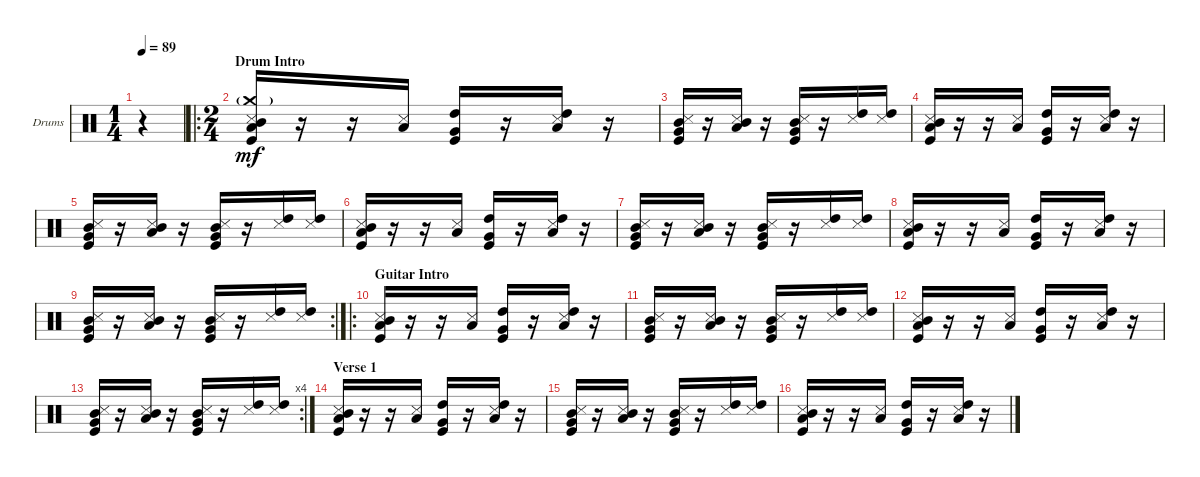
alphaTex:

\bracketExtendMode groupsimilarinstruments
\firstSystemTrackNameOrientation horizontal
\otherSystemsTrackNameOrientation horizontal
\track ("Ryo" "Drums") {instrument percussion}
\staff {score}
\articulation defaults
\ts (1 4)
\tempo 89
\clef neutral
\ks c
r.4{dy mf} |
\ro
\ts (2 4)
\section ("" "Drum Intro")
("Kick (hit)" "Low Tom (hit)" "Crash medium (hit)"{g} "Snare (side stick) 3" "Mid Tom (hit)").16 r.16 r.16 ("Low Tom (hit)" "Snare (side stick) 3").16 ("Kick (hit)" "Very Low Tom (hit)" "High Tom (hit)").16 r.16 ("Low Tom (hit)" "High Tom (hit)" "Snare (side stick) 3").16 r.16 |
("Kick (hit)" "Very Low Tom (hit)" "Snare (side stick) 3" "Mid Tom (hit)").16 r.16 ("Mid Tom (hit)" "Low Tom (hit)" "Snare (side stick) 3").16 r.16 ("Kick (hit)" "Very Low Tom (hit)" "Snare (side stick) 3" "Mid Tom (hit)").16 r.16 ("High Tom (hit)" "Snare (side stick) 3").16 ("High Tom (hit)" "Snare (side stick) 3").16 |
("Kick (hit)" "Low Tom (hit)" "Snare (side stick) 3" "Mid Tom (hit)").16 r.16 r.16 ("Low Tom (hit)" "Snare (side stick) 3").16 ("Kick (hit)" "Very Low Tom (hit)" "High Tom (hit)").16 r.16 ("Low Tom (hit)" "High Tom (hit)" "Snare (side stick) 3").16 r.16 |
("Kick (hit)" "Very Low Tom (hit)" "Snare (side stick) 3" "Mid Tom (hit)").16 r.16 ("Mid Tom (hit)" "Low Tom (hit)" "Snare (side stick) 3").16 r.16 ("Kick (hit)" "Very Low Tom (hit)" "Snare (side stick) 3" "Mid Tom (hit)").16 r.16 ("High Tom (hit)" "Snare (side stick) 3").16 ("High Tom (hit)" "Snare (side stick) 3").16 |
("Kick (hit)" "Low Tom (hit)" "Snare (side stick) 3" "Mid Tom (hit)").16 r.16 r.16 ("Low Tom (hit)" "Snare (side stick) 3").16 ("Kick (hit)" "Very Low Tom (hit)" "High Tom (hit)").16 r.16 ("Low Tom (hit)" "High Tom (hit)" "Snare (side stick) 3").16 r.16 |
("Kick (hit)" "Very Low Tom (hit)" "Snare (side stick) 3" "Mid Tom (hit)").16 r.16 ("Mid Tom (hit)" "Low Tom (hit)" "Snare (side stick) 3").16 r.16 ("Kick (hit)" "Very Low Tom (hit)" "Snare (side stick) 3" "Mid Tom (hit)").16 r.16 ("High Tom (hit)" "Snare (side stick) 3").16 ("High Tom (hit)" "Snare (side stick) 3").16 |
("Kick (hit)" "Low Tom (hit)" "Snare (side stick) 3" "Mid Tom (hit)").16 r.16 r.16 ("Low Tom (hit)" "Snare (side stick) 3").16 ("Kick (hit)" "Very Low Tom (hit)" "High Tom (hit)").16 r.16 ("Low Tom (hit)" "High Tom (hit)" "Snare (side stick) 3").16 r.16 |
\rc 2
("Kick (hit)" "Very Low Tom (hit)" "Snare (side stick) 3" "Mid Tom (hit)").16 r.16 ("Mid Tom (hit)" "Low Tom (hit)" "Snare (side stick) 3").16 r.16 ("Kick (hit)" "Very Low Tom (hit)" "Snare (side stick) 3" "Mid Tom (hit)").16 r.16 ("High Tom (hit)" "Snare (side stick) 3").16 ("High Tom (hit)" "Snare (side stick) 3").16 |
\ro
\section ("" "Guitar Intro")
("Kick (hit)" "Low Tom (hit)" "Snare (side stick) 3" "Mid Tom (hit)").16 r.16 r.16 ("Low Tom (hit)" "Snare (side stick) 3").16 ("Kick (hit)" "Very Low Tom (hit)" "High Tom (hit)").16 r.16 ("Low Tom (hit)" "High Tom (hit)" "Snare (side stick) 3").16 r.16 |
("Kick (hit)" "Very Low Tom (hit)" "Snare (side stick) 3" "Mid Tom (hit)").16 r.16 ("Mid Tom (hit)" "Low Tom (hit)" "Snare (side stick) 3").16 r.16 ("Kick (hit)" "Very Low Tom (hit)" "Snare (side stick) 3" "Mid Tom (hit)").16 r.16 ("High Tom (hit)" "Snare (side stick) 3").16 ("High Tom (hit)" "Snare (side stick) 3").16 |
("Kick (hit)" "Low Tom (hit)" "Snare (side stick) 3" "Mid Tom (hit)").16 r.16 r.16 ("Low Tom (hit)" "Snare (side stick) 3").16 ("Kick (hit)" "Very Low Tom (hit)" "High Tom (hit)").16 r.16 ("Low Tom (hit)" "High Tom (hit)" "Snare (side stick) 3").16 r.16 |
\rc 4
("Kick (hit)" "Very Low Tom (hit)" "Snare (side stick) 3" "Mid Tom (hit)").16 r.16 ("Mid Tom (hit)" "Low Tom (hit)" "Snare (side stick) 3").16 r.16 ("Kick (hit)" "Very Low Tom (hit)" "Snare (side stick) 3" "Mid Tom (hit)").16 r.16 ("High Tom (hit)" "Snare (side stick) 3").16 ("High Tom (hit)" "Snare (side stick) 3").16 |
\section ("" "Verse 1")
("Kick (hit)" "Low Tom (hit)" "Snare (side stick) 3" "Mid Tom (hit)").16 r.16 r.16 ("Low Tom (hit)" "Snare (side stick) 3").16 ("Kick (hit)" "Very Low Tom (hit)" "High Tom (hit)").16 r.16 ("Low Tom (hit)" "High Tom (hit)" "Snare (side stick) 3").16 r.16 |
("Kick (hit)" "Very Low Tom (hit)" "Snare (side stick) 3" "Mid Tom (hit)").16 r.16 ("Mid Tom (hit)" "Low Tom (hit)" "Snare (side stick) 3").16 r.16 ("Kick (hit)" "Very Low Tom (hit)" "Snare (side stick) 3" "Mid Tom (hit)").16 r.16 ("High Tom (hit)" "Snare (side stick) 3").16 ("High Tom (hit)" "Snare (side stick) 3").16 |
("Kick (hit)" "Low Tom (hit)" "Snare (side stick) 3" "Mid Tom (hit)").16 r.16 r.16 ("Low Tom (hit)" "Snare (side stick) 3").16 ("Kick (hit)" "Very Low Tom (hit)" "High Tom (hit)").16 r.16 ("Low Tom (hit)" "High Tom (hit)" "Snare (side stick) 3").16 r.16
